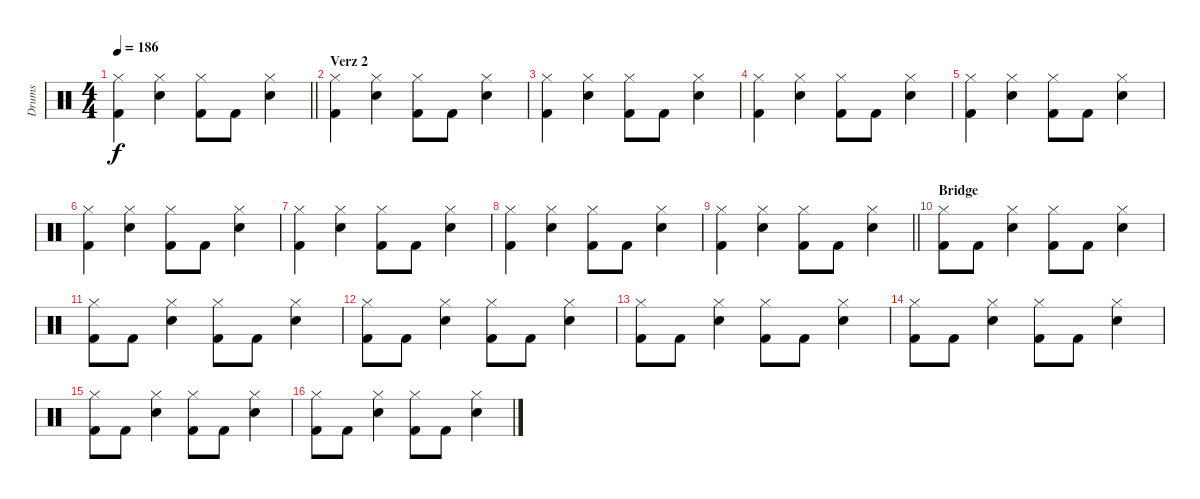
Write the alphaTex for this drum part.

\track ("Drums" "Drums") {instrument percussion}
\staff {score}
\articulation defaults
\ts (4 4)
\tempo 186
\clef neutral
\barLineRight lightlight
\ks c
("Hi-Hat (closed)" "Kick (hit) 2").4{dy f} ("Hi-Hat (closed)" "Snare (hit) 2").4 ("Hi-Hat (closed)" "Kick (hit) 2").8 "Kick (hit) 2".8 ("Hi-Hat (closed)" "Snare (hit) 2").4 |
\section ("" "Verz 2")
("Hi-Hat (closed)" "Kick (hit) 2").4 ("Hi-Hat (closed)" "Snare (hit) 2").4 ("Hi-Hat (closed)" "Kick (hit) 2").8 "Kick (hit) 2".8 ("Hi-Hat (closed)" "Snare (hit) 2").4 |
("Hi-Hat (closed)" "Kick (hit) 2").4 ("Hi-Hat (closed)" "Snare (hit) 2").4 ("Hi-Hat (closed)" "Kick (hit) 2").8 "Kick (hit) 2".8 ("Hi-Hat (closed)" "Snare (hit) 2").4 |
("Hi-Hat (closed)" "Kick (hit) 2").4 ("Hi-Hat (closed)" "Snare (hit) 2").4 ("Hi-Hat (closed)" "Kick (hit) 2").8 "Kick (hit) 2".8 ("Hi-Hat (closed)" "Snare (hit) 2").4 |
("Hi-Hat (closed)" "Kick (hit) 2").4 ("Hi-Hat (closed)" "Snare (hit) 2").4 ("Hi-Hat (closed)" "Kick (hit) 2").8 "Kick (hit) 2".8 ("Hi-Hat (closed)" "Snare (hit) 2").4 |
("Hi-Hat (closed)" "Kick (hit) 2").4 ("Hi-Hat (closed)" "Snare (hit) 2").4 ("Hi-Hat (closed)" "Kick (hit) 2").8 "Kick (hit) 2".8 ("Hi-Hat (closed)" "Snare (hit) 2").4 |
("Hi-Hat (closed)" "Kick (hit) 2").4 ("Hi-Hat (closed)" "Snare (hit) 2").4 ("Hi-Hat (closed)" "Kick (hit) 2").8 "Kick (hit) 2".8 ("Hi-Hat (closed)" "Snare (hit) 2").4 |
("Hi-Hat (closed)" "Kick (hit) 2").4 ("Hi-Hat (closed)" "Snare (hit) 2").4 ("Hi-Hat (closed)" "Kick (hit) 2").8 "Kick (hit) 2".8 ("Hi-Hat (closed)" "Snare (hit) 2").4 |
\barLineRight lightlight
("Hi-Hat (closed)" "Kick (hit) 2").4 ("Hi-Hat (closed)" "Snare (hit) 2").4 ("Hi-Hat (closed)" "Kick (hit) 2").8 "Kick (hit) 2".8 ("Hi-Hat (closed)" "Snare (hit) 2").4 |
\section ("" "Bridge")
("Hi-Hat (closed)" "Kick (hit) 2").8 "Kick (hit) 2".8 ("Hi-Hat (closed)" "Snare (hit) 2").4 ("Hi-Hat (closed)" "Kick (hit) 2").8 "Kick (hit) 2".8 ("Hi-Hat (closed)" "Snare (hit) 2").4 |
("Hi-Hat (closed)" "Kick (hit) 2").8 "Kick (hit) 2".8 ("Hi-Hat (closed)" "Snare (hit) 2").4 ("Hi-Hat (closed)" "Kick (hit) 2").8 "Kick (hit) 2".8 ("Hi-Hat (closed)" "Snare (hit) 2").4 |
("Hi-Hat (closed)" "Kick (hit) 2").8 "Kick (hit) 2".8 ("Hi-Hat (closed)" "Snare (hit) 2").4 ("Hi-Hat (closed)" "Kick (hit) 2").8 "Kick (hit) 2".8 ("Hi-Hat (closed)" "Snare (hit) 2").4 |
("Hi-Hat (closed)" "Kick (hit) 2").8 "Kick (hit) 2".8 ("Hi-Hat (closed)" "Snare (hit) 2").4 ("Hi-Hat (closed)" "Kick (hit) 2").8 "Kick (hit) 2".8 ("Hi-Hat (closed)" "Snare (hit) 2").4 |
("Hi-Hat (closed)" "Kick (hit) 2").8 "Kick (hit) 2".8 ("Hi-Hat (closed)" "Snare (hit) 2").4 ("Hi-Hat (closed)" "Kick (hit) 2").8 "Kick (hit) 2".8 ("Hi-Hat (closed)" "Snare (hit) 2").4 |
("Hi-Hat (closed)" "Kick (hit) 2").8 "Kick (hit) 2".8 ("Hi-Hat (closed)" "Snare (hit) 2").4 ("Hi-Hat (closed)" "Kick (hit) 2").8 "Kick (hit) 2".8 ("Hi-Hat (closed)" "Snare (hit) 2").4 |
("Hi-Hat (closed)" "Kick (hit) 2").8 "Kick (hit) 2".8 ("Hi-Hat (closed)" "Snare (hit) 2").4 ("Hi-Hat (closed)" "Kick (hit) 2").8 "Kick (hit) 2".8 ("Hi-Hat (closed)" "Snare (hit) 2").4
